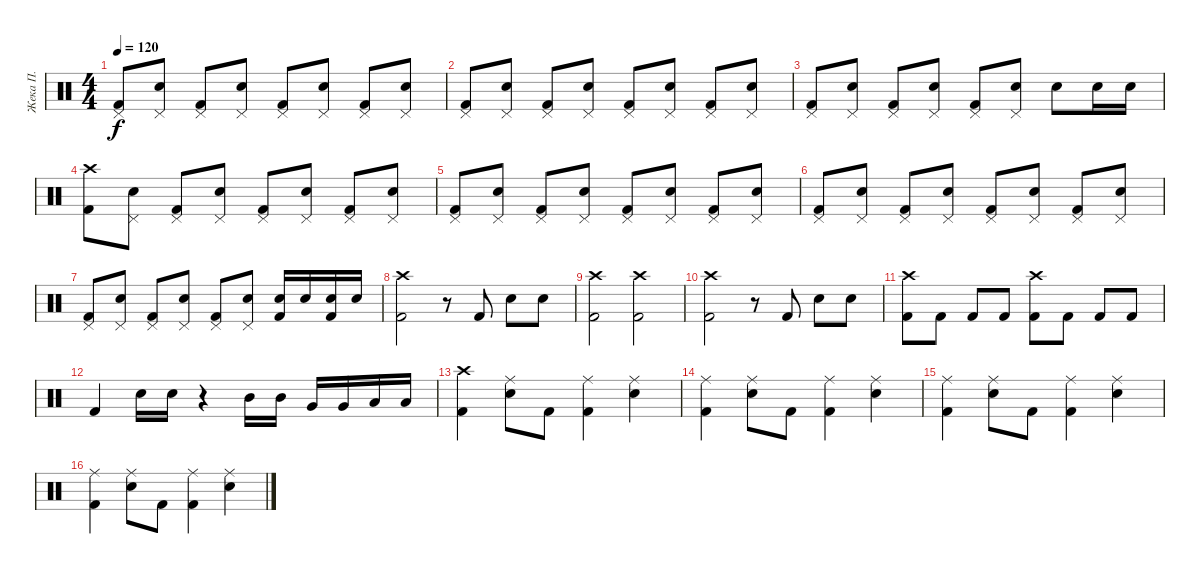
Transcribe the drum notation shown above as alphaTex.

\track ("Жека П." "Жека П.") {instrument percussion}
\staff {score}
\articulation defaults
\ts (4 4)
\tempo 120
\clef neutral
\ks c
("Pedal Hi-Hat (hit)" "Kick (hit) 2").8{dy f} ("Pedal Hi-Hat (hit)" "Snare (hit) 2").8 ("Pedal Hi-Hat (hit)" "Kick (hit) 2").8 ("Pedal Hi-Hat (hit)" "Snare (hit) 2").8 ("Pedal Hi-Hat (hit)" "Kick (hit) 2").8 ("Pedal Hi-Hat (hit)" "Snare (hit) 2").8 ("Pedal Hi-Hat (hit)" "Kick (hit) 2").8 ("Pedal Hi-Hat (hit)" "Snare (hit) 2").8 |
("Pedal Hi-Hat (hit)" "Kick (hit) 2").8 ("Pedal Hi-Hat (hit)" "Snare (hit) 2").8 ("Pedal Hi-Hat (hit)" "Kick (hit) 2").8 ("Pedal Hi-Hat (hit)" "Snare (hit) 2").8 ("Pedal Hi-Hat (hit)" "Kick (hit) 2").8 ("Pedal Hi-Hat (hit)" "Snare (hit) 2").8 ("Pedal Hi-Hat (hit)" "Kick (hit) 2").8 ("Pedal Hi-Hat (hit)" "Snare (hit) 2").8 |
("Pedal Hi-Hat (hit)" "Kick (hit) 2").8 ("Pedal Hi-Hat (hit)" "Snare (hit) 2").8 ("Pedal Hi-Hat (hit)" "Kick (hit) 2").8 ("Pedal Hi-Hat (hit)" "Snare (hit) 2").8 ("Pedal Hi-Hat (hit)" "Kick (hit) 2").8 ("Pedal Hi-Hat (hit)" "Snare (hit) 2").8 "Snare (hit) 2".8 "Snare (hit) 2".16 "Snare (hit) 2".16 |
("Crash high (hit)" "Kick (hit) 2").8 ("Pedal Hi-Hat (hit)" "Snare (hit) 2").8 ("Pedal Hi-Hat (hit)" "Kick (hit) 2").8 ("Pedal Hi-Hat (hit)" "Snare (hit) 2").8 ("Pedal Hi-Hat (hit)" "Kick (hit) 2").8 ("Pedal Hi-Hat (hit)" "Snare (hit) 2").8 ("Pedal Hi-Hat (hit)" "Kick (hit) 2").8 ("Pedal Hi-Hat (hit)" "Snare (hit) 2").8 |
("Pedal Hi-Hat (hit)" "Kick (hit) 2").8 ("Pedal Hi-Hat (hit)" "Snare (hit) 2").8 ("Pedal Hi-Hat (hit)" "Kick (hit) 2").8 ("Pedal Hi-Hat (hit)" "Snare (hit) 2").8 ("Pedal Hi-Hat (hit)" "Kick (hit) 2").8 ("Pedal Hi-Hat (hit)" "Snare (hit) 2").8 ("Pedal Hi-Hat (hit)" "Kick (hit) 2").8 ("Pedal Hi-Hat (hit)" "Snare (hit) 2").8 |
("Pedal Hi-Hat (hit)" "Kick (hit) 2").8 ("Pedal Hi-Hat (hit)" "Snare (hit) 2").8 ("Pedal Hi-Hat (hit)" "Kick (hit) 2").8 ("Pedal Hi-Hat (hit)" "Snare (hit) 2").8 ("Pedal Hi-Hat (hit)" "Kick (hit) 2").8 ("Pedal Hi-Hat (hit)" "Snare (hit) 2").8 ("Pedal Hi-Hat (hit)" "Kick (hit) 2").8 ("Pedal Hi-Hat (hit)" "Snare (hit) 2").8 |
("Pedal Hi-Hat (hit)" "Kick (hit) 2").8 ("Pedal Hi-Hat (hit)" "Snare (hit) 2").8 ("Pedal Hi-Hat (hit)" "Kick (hit) 2").8 ("Pedal Hi-Hat (hit)" "Snare (hit) 2").8 ("Pedal Hi-Hat (hit)" "Kick (hit) 2").8 ("Pedal Hi-Hat (hit)" "Snare (hit) 2").8 ("Snare (hit) 2" "Kick (hit) 2").16 "Snare (hit) 2".16 ("Snare (hit) 2" "Kick (hit) 2").16 "Snare (hit) 2".16 |
("Crash high (hit)" "Kick (hit) 2").2 r.8 "Kick (hit) 2".8 "Snare (hit) 2".8 "Snare (hit) 2".8 |
("Crash high (hit)" "Kick (hit) 2").2 ("Crash high (hit)" "Kick (hit) 2").2 |
("Crash high (hit)" "Kick (hit) 2").2 r.8 "Kick (hit) 2".8 "Snare (hit) 2".8 "Snare (hit) 2".8 |
("Kick (hit) 2" "Crash high (hit)").8 "Kick (hit) 2".8 "Kick (hit) 2".8 "Kick (hit) 2".8 ("Kick (hit) 2" "Crash high (hit)").8 "Kick (hit) 2".8 "Kick (hit) 2".8 "Kick (hit) 2".8 |
"Kick (hit) 2".4 "Snare (hit) 2".16 "Snare (hit) 2".16 r.4 "Mid Tom (hit)".16 "Mid Tom (hit)".16 "Very Low Tom (hit)".16 "Very Low Tom (hit)".16 "Low Floor Tom (hit)".16 "Low Floor Tom (hit)".16 |
("Crash high (hit)" "Kick (hit) 2").4 ("Ride (middle)" "Snare (hit) 2").8 "Kick (hit) 2".8 ("Ride (middle)" "Kick (hit) 2").4 ("Ride (middle)" "Snare (hit) 2").4 |
("Ride (middle)" "Kick (hit) 2").4 ("Ride (middle)" "Snare (hit) 2").8 "Kick (hit) 2".8 ("Ride (middle)" "Kick (hit) 2").4 ("Ride (middle)" "Snare (hit) 2").4 |
("Ride (middle)" "Kick (hit) 2").4 ("Ride (middle)" "Snare (hit) 2").8 "Kick (hit) 2".8 ("Ride (middle)" "Kick (hit) 2").4 ("Ride (middle)" "Snare (hit) 2").4 |
("Ride (middle)" "Kick (hit) 2").4 ("Ride (middle)" "Snare (hit) 2").8 "Kick (hit) 2".8 ("Ride (middle)" "Kick (hit) 2").4 ("Ride (middle)" "Snare (hit) 2").4
